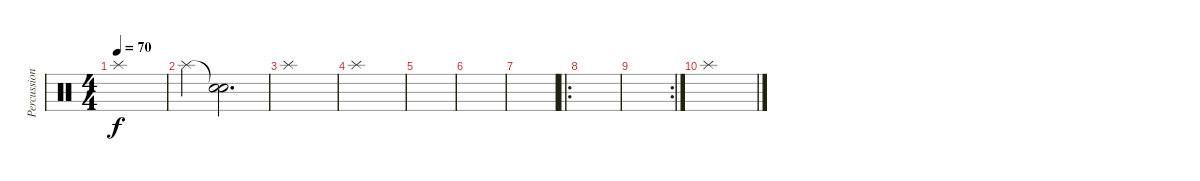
\track ("Percussion" "Percussion") {instrument percussion}
\staff {score}
\articulation defaults
\ts (4 4)
\tempo 70
\clef neutral
\ks c "Splash (hit)".1{dy f}
|
"Splash (hit)".4 ("Snare (hit)"{t} "Snare (hit)"{t}).2{d} |
"Splash (hit)".1 |
"Splash (hit)".1 |
|
|
|
\ro
|
\rc 2
|
"Splash (hit)".1
